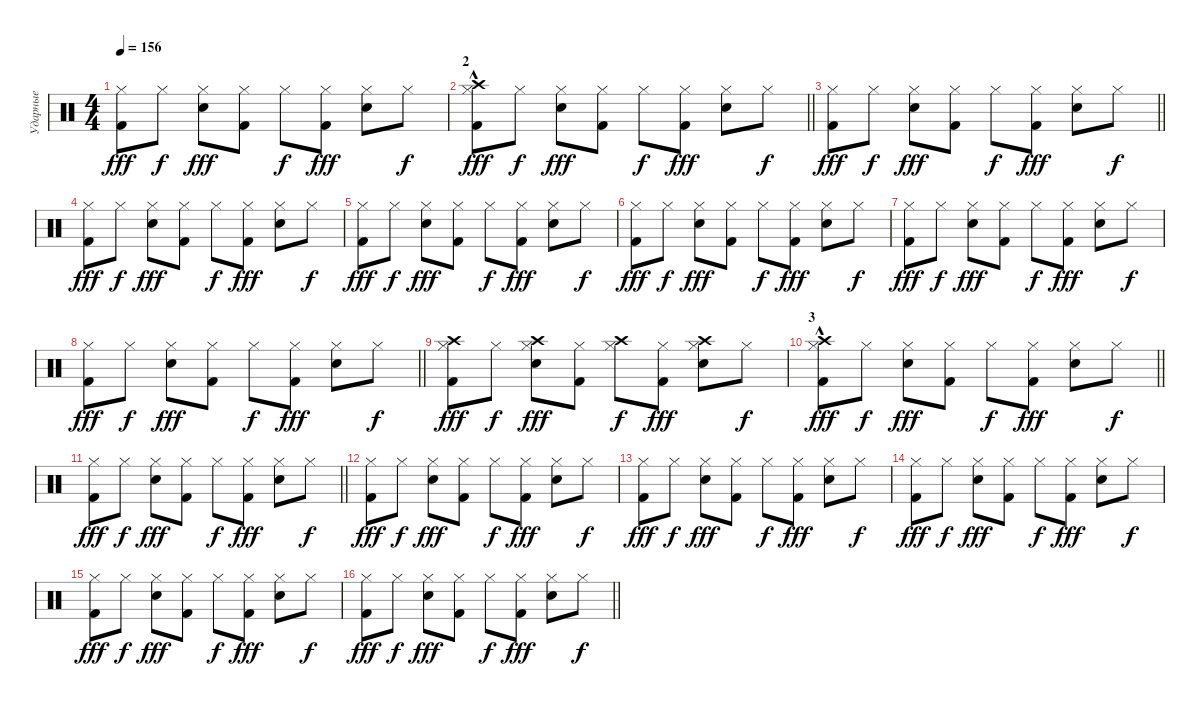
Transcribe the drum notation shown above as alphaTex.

\track ("Ударные" "Ударные") {instrument percussion}
\staff {score}
\articulation defaults
\ts (4 4)
\tempo 156
\clef neutral
\ks c
("Hi-Hat (closed)" "Kick (hit) 2").8{dy fff} "Hi-Hat (closed)".8{dy f} ("Hi-Hat (closed)" "Snare (hit) 2").8{dy fff} ("Hi-Hat (closed)" "Kick (hit) 2").8 "Hi-Hat (closed)".8{dy f} ("Hi-Hat (closed)" "Kick (hit) 2").8{dy fff} ("Hi-Hat (closed)" "Snare (hit) 2").8 "Hi-Hat (closed)".8{dy f} |
\section ("" "2")
\barLineRight lightlight
("Hi-Hat (closed)" "Kick (hit) 2" "Crash high (hit)"{hac}).8{dy fff} "Hi-Hat (closed)".8{dy f} ("Hi-Hat (closed)" "Snare (hit) 2").8{dy fff} ("Hi-Hat (closed)" "Kick (hit) 2").8 "Hi-Hat (closed)".8{dy f} ("Hi-Hat (closed)" "Kick (hit) 2").8{dy fff} ("Hi-Hat (closed)" "Snare (hit) 2").8 "Hi-Hat (closed)".8{dy f} |
\barLineRight lightlight
("Hi-Hat (closed)" "Kick (hit) 2").8{dy fff} "Hi-Hat (closed)".8{dy f} ("Hi-Hat (closed)" "Snare (hit) 2").8{dy fff} ("Hi-Hat (closed)" "Kick (hit) 2").8 "Hi-Hat (closed)".8{dy f} ("Hi-Hat (closed)" "Kick (hit) 2").8{dy fff} ("Hi-Hat (closed)" "Snare (hit) 2").8 "Hi-Hat (closed)".8{dy f} |
("Hi-Hat (closed)" "Kick (hit) 2").8{dy fff} "Hi-Hat (closed)".8{dy f} ("Hi-Hat (closed)" "Snare (hit) 2").8{dy fff} ("Hi-Hat (closed)" "Kick (hit) 2").8 "Hi-Hat (closed)".8{dy f} ("Hi-Hat (closed)" "Kick (hit) 2").8{dy fff} ("Hi-Hat (closed)" "Snare (hit) 2").8 "Hi-Hat (closed)".8{dy f} |
("Hi-Hat (closed)" "Kick (hit) 2").8{dy fff} "Hi-Hat (closed)".8{dy f} ("Hi-Hat (closed)" "Snare (hit) 2").8{dy fff} ("Hi-Hat (closed)" "Kick (hit) 2").8 "Hi-Hat (closed)".8{dy f} ("Hi-Hat (closed)" "Kick (hit) 2").8{dy fff} ("Hi-Hat (closed)" "Snare (hit) 2").8 "Hi-Hat (closed)".8{dy f} |
("Hi-Hat (closed)" "Kick (hit) 2").8{dy fff} "Hi-Hat (closed)".8{dy f} ("Hi-Hat (closed)" "Snare (hit) 2").8{dy fff} ("Hi-Hat (closed)" "Kick (hit) 2").8 "Hi-Hat (closed)".8{dy f} ("Hi-Hat (closed)" "Kick (hit) 2").8{dy fff} ("Hi-Hat (closed)" "Snare (hit) 2").8 "Hi-Hat (closed)".8{dy f} |
("Hi-Hat (closed)" "Kick (hit) 2").8{dy fff} "Hi-Hat (closed)".8{dy f} ("Hi-Hat (closed)" "Snare (hit) 2").8{dy fff} ("Hi-Hat (closed)" "Kick (hit) 2").8 "Hi-Hat (closed)".8{dy f} ("Hi-Hat (closed)" "Kick (hit) 2").8{dy fff} ("Hi-Hat (closed)" "Snare (hit) 2").8 "Hi-Hat (closed)".8{dy f} |
\barLineRight lightlight
("Hi-Hat (closed)" "Kick (hit) 2").8{dy fff} "Hi-Hat (closed)".8{dy f} ("Hi-Hat (closed)" "Snare (hit) 2").8{dy fff} ("Hi-Hat (closed)" "Kick (hit) 2").8 "Hi-Hat (closed)".8{dy f} ("Hi-Hat (closed)" "Kick (hit) 2").8{dy fff} ("Hi-Hat (closed)" "Snare (hit) 2").8 "Hi-Hat (closed)".8{dy f} |
("Hi-Hat (closed)" "Kick (hit) 2" "Crash high (hit)").8{dy fff} "Hi-Hat (closed)".8{dy f} ("Hi-Hat (closed)" "Snare (hit) 2" "Crash high (hit)").8{dy fff} ("Hi-Hat (closed)" "Kick (hit) 2").8 ("Hi-Hat (closed)" "Crash high (hit)").8{dy f} ("Hi-Hat (closed)" "Kick (hit) 2").8{dy fff} ("Hi-Hat (closed)" "Snare (hit) 2" "Crash high (hit)").8 "Hi-Hat (closed)".8{dy f} |
\section ("" "3")
\barLineRight lightlight
("Hi-Hat (closed)" "Kick (hit) 2" "Crash high (hit)"{hac}).8{dy fff} "Hi-Hat (closed)".8{dy f} ("Hi-Hat (closed)" "Snare (hit) 2").8{dy fff} ("Hi-Hat (closed)" "Kick (hit) 2").8 "Hi-Hat (closed)".8{dy f} ("Hi-Hat (closed)" "Kick (hit) 2").8{dy fff} ("Hi-Hat (closed)" "Snare (hit) 2").8 "Hi-Hat (closed)".8{dy f} |
\barLineRight lightlight
("Hi-Hat (closed)" "Kick (hit) 2").8{dy fff} "Hi-Hat (closed)".8{dy f} ("Hi-Hat (closed)" "Snare (hit) 2").8{dy fff} ("Hi-Hat (closed)" "Kick (hit) 2").8 "Hi-Hat (closed)".8{dy f} ("Hi-Hat (closed)" "Kick (hit) 2").8{dy fff} ("Hi-Hat (closed)" "Snare (hit) 2").8 "Hi-Hat (closed)".8{dy f} |
("Hi-Hat (closed)" "Kick (hit) 2").8{dy fff} "Hi-Hat (closed)".8{dy f} ("Hi-Hat (closed)" "Snare (hit) 2").8{dy fff} ("Hi-Hat (closed)" "Kick (hit) 2").8 "Hi-Hat (closed)".8{dy f} ("Hi-Hat (closed)" "Kick (hit) 2").8{dy fff} ("Hi-Hat (closed)" "Snare (hit) 2").8 "Hi-Hat (closed)".8{dy f} |
("Hi-Hat (closed)" "Kick (hit) 2").8{dy fff} "Hi-Hat (closed)".8{dy f} ("Hi-Hat (closed)" "Snare (hit) 2").8{dy fff} ("Hi-Hat (closed)" "Kick (hit) 2").8 "Hi-Hat (closed)".8{dy f} ("Hi-Hat (closed)" "Kick (hit) 2").8{dy fff} ("Hi-Hat (closed)" "Snare (hit) 2").8 "Hi-Hat (closed)".8{dy f} |
("Hi-Hat (closed)" "Kick (hit) 2").8{dy fff} "Hi-Hat (closed)".8{dy f} ("Hi-Hat (closed)" "Snare (hit) 2").8{dy fff} ("Hi-Hat (closed)" "Kick (hit) 2").8 "Hi-Hat (closed)".8{dy f} ("Hi-Hat (closed)" "Kick (hit) 2").8{dy fff} ("Hi-Hat (closed)" "Snare (hit) 2").8 "Hi-Hat (closed)".8{dy f} |
("Hi-Hat (closed)" "Kick (hit) 2").8{dy fff} "Hi-Hat (closed)".8{dy f} ("Hi-Hat (closed)" "Snare (hit) 2").8{dy fff} ("Hi-Hat (closed)" "Kick (hit) 2").8 "Hi-Hat (closed)".8{dy f} ("Hi-Hat (closed)" "Kick (hit) 2").8{dy fff} ("Hi-Hat (closed)" "Snare (hit) 2").8 "Hi-Hat (closed)".8{dy f} |
\barLineRight lightlight
("Hi-Hat (closed)" "Kick (hit) 2").8{dy fff} "Hi-Hat (closed)".8{dy f} ("Hi-Hat (closed)" "Snare (hit) 2").8{dy fff} ("Hi-Hat (closed)" "Kick (hit) 2").8 "Hi-Hat (closed)".8{dy f} ("Hi-Hat (closed)" "Kick (hit) 2").8{dy fff} ("Hi-Hat (closed)" "Snare (hit) 2").8 "Hi-Hat (closed)".8{dy f}
